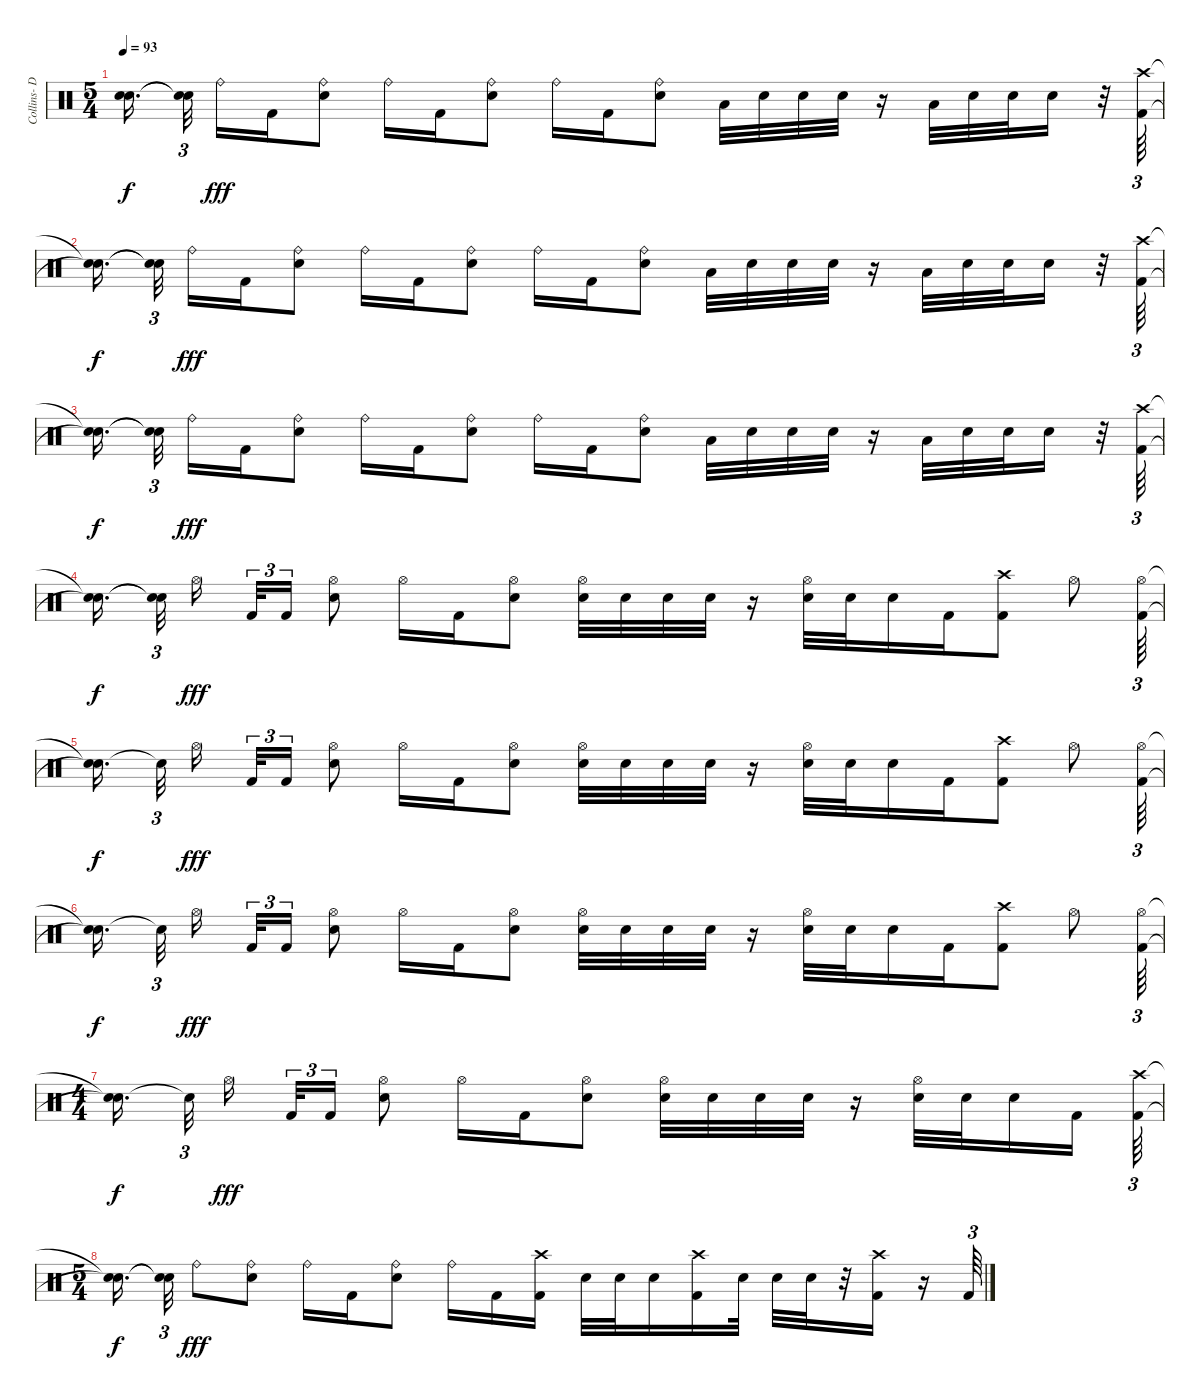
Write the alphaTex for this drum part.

\track ("Collins- Drums" "Collins- D") {instrument percussion}
\staff {score}
\articulation defaults
\ts (5 4)
\tempo 93
\clef neutral
\ks c
("Snare (hit)"{t} "Snare (hit)"{t}).16{d dy f beam splitsecondary} ("Snare (hit)"{t} "Snare (hit)"{t}).32{tu (3 2) beam splitsecondary} "Ride (bell)".16{dy fff} "Kick (hit) 2".16 ("Electric Snare (hit)" "Ride (bell)").8 "Ride (bell)".16 "Kick (hit) 2".16 ("Electric Snare (hit)" "Ride (bell)").8 "Ride (bell)".16 "Kick (hit) 2".16 ("Ride (bell)" "Electric Snare (hit)").8 "Low Tom (hit)".32 "Electric Snare (hit)".32 "Electric Snare (hit)".32 "Electric Snare (hit)".32 r.16 "Low Tom (hit)".32 "Electric Snare (hit)".32 "Electric Snare (hit)".32 "Electric Snare (hit)".16 r.32 ("Crash high (hit)" "Kick (hit) 2").64{tu (3 2)} |
("Snare (hit)"{t} "Snare (hit)"{t}).16{d dy f beam splitsecondary} ("Snare (hit)"{t} "Snare (hit)"{t}).32{tu (3 2) beam splitsecondary} "Ride (bell)".16{dy fff} "Kick (hit) 2".16 ("Electric Snare (hit)" "Ride (bell)").8 "Ride (bell)".16 "Kick (hit) 2".16 ("Electric Snare (hit)" "Ride (bell)").8 "Ride (bell)".16 "Kick (hit) 2".16 ("Ride (bell)" "Electric Snare (hit)").8 "Low Tom (hit)".32 "Electric Snare (hit)".32 "Electric Snare (hit)".32 "Electric Snare (hit)".32 r.16 "Low Tom (hit)".32 "Electric Snare (hit)".32 "Electric Snare (hit)".32 "Electric Snare (hit)".16 r.32 ("Crash high (hit)" "Kick (hit) 2").64{tu (3 2)} |
("Snare (hit)"{t} "Snare (hit)"{t}).16{d dy f beam splitsecondary} ("Snare (hit)"{t} "Snare (hit)"{t}).32{tu (3 2) beam splitsecondary} "Ride (bell)".16{dy fff} "Kick (hit) 2".16 ("Electric Snare (hit)" "Ride (bell)").8 "Ride (bell)".16 "Kick (hit) 2".16 ("Electric Snare (hit)" "Ride (bell)").8 "Ride (bell)".16 "Kick (hit) 2".16 ("Ride (bell)" "Electric Snare (hit)").8 "Low Tom (hit)".32 "Electric Snare (hit)".32 "Electric Snare (hit)".32 "Electric Snare (hit)".32 r.16 "Low Tom (hit)".32 "Electric Snare (hit)".32 "Electric Snare (hit)".32 "Electric Snare (hit)".16 r.32 ("Crash high (hit)" "Kick (hit) 2").64{tu (3 2)} |
("Snare (hit)"{t} "Snare (hit)"{t}).16{d dy f beam splitsecondary} ("Snare (hit)"{t} "Snare (hit)"{t}).32{tu (3 2) beam splitsecondary} "Hi-Hat (open)".16{dy fff beam splitsecondary} "Kick (hit) 2".32{tu (3 2)} "Kick (hit) 2".16{tu (3 2)} ("Electric Snare (hit)" "Hi-Hat (open)").8 "Hi-Hat (open)".16 "Kick (hit) 2".16 ("Electric Snare (hit)" "Hi-Hat (open)").8 ("Hi-Hat (open)" "Electric Snare (hit)").32 "Electric Snare (hit)".32 "Electric Snare (hit)".32 "Electric Snare (hit)".32 r.16 ("Hi-Hat (open)" "Electric Snare (hit)").32 "Electric Snare (hit)".32 "Electric Snare (hit)".16 "Kick (hit) 2".16 ("Kick (hit) 2" "Crash high (hit)").8 "Hi-Hat (open)".8 ("Hi-Hat (open)" "Kick (hit) 2").64{tu (3 2)} |
("Snare (hit)"{t} "Snare (hit)"{t}).16{d dy f beam splitsecondary} "Snare (hit)"{t}.32{tu (3 2) beam splitsecondary} "Hi-Hat (open)".16{dy fff beam splitsecondary} "Kick (hit) 2".32{tu (3 2)} "Kick (hit) 2".16{tu (3 2)} ("Electric Snare (hit)" "Hi-Hat (open)").8 "Hi-Hat (open)".16 "Kick (hit) 2".16 ("Electric Snare (hit)" "Hi-Hat (open)").8 ("Hi-Hat (open)" "Electric Snare (hit)").32 "Electric Snare (hit)".32 "Electric Snare (hit)".32 "Electric Snare (hit)".32 r.16 ("Hi-Hat (open)" "Electric Snare (hit)").32 "Electric Snare (hit)".32 "Electric Snare (hit)".16 "Kick (hit) 2".16 ("Kick (hit) 2" "Crash high (hit)").8 "Hi-Hat (open)".8 ("Hi-Hat (open)" "Kick (hit) 2").64{tu (3 2)} |
("Snare (hit)"{t} "Snare (hit)"{t}).16{d dy f beam splitsecondary} "Snare (hit)"{t}.32{tu (3 2) beam splitsecondary} "Hi-Hat (open)".16{dy fff beam splitsecondary} "Kick (hit) 2".32{tu (3 2)} "Kick (hit) 2".16{tu (3 2)} ("Electric Snare (hit)" "Hi-Hat (open)").8 "Hi-Hat (open)".16 "Kick (hit) 2".16 ("Electric Snare (hit)" "Hi-Hat (open)").8 ("Hi-Hat (open)" "Electric Snare (hit)").32 "Electric Snare (hit)".32 "Electric Snare (hit)".32 "Electric Snare (hit)".32 r.16 ("Hi-Hat (open)" "Electric Snare (hit)").32 "Electric Snare (hit)".32 "Electric Snare (hit)".16 "Kick (hit) 2".16 ("Kick (hit) 2" "Crash high (hit)").8 "Hi-Hat (open)".8 ("Hi-Hat (open)" "Kick (hit) 2").64{tu (3 2)} |
\ts (4 4)
("Snare (hit)"{t} "Snare (hit)"{t}).16{d dy f beam splitsecondary} "Snare (hit)"{t}.32{tu (3 2) beam splitsecondary} "Hi-Hat (open)".16{dy fff beam splitsecondary} "Kick (hit) 2".32{tu (3 2)} "Kick (hit) 2".16{tu (3 2)} ("Electric Snare (hit)" "Hi-Hat (open)").8 "Hi-Hat (open)".16 "Kick (hit) 2".16 ("Electric Snare (hit)" "Hi-Hat (open)").8 ("Hi-Hat (open)" "Electric Snare (hit)").32 "Electric Snare (hit)".32 "Electric Snare (hit)".32 "Electric Snare (hit)".32 r.16 ("Hi-Hat (open)" "Electric Snare (hit)").32 "Electric Snare (hit)".32 "Electric Snare (hit)".16 "Kick (hit) 2".16{beam splitsecondary} ("Kick (hit) 2" "Crash high (hit)").64{tu (3 2)} |
\ts (5 4)
("Snare (hit)"{t} "Snare (hit)"{t}).16{d dy f beam splitsecondary} ("Snare (hit)"{t} "Snare (hit)"{t}).32{tu (3 2)} "Ride (bell)".8{dy fff} ("Electric Snare (hit)" "Ride (bell)").8 "Ride (bell)".16 "Kick (hit) 2".16 ("Electric Snare (hit)" "Ride (bell)").8 "Ride (bell)".16 "Kick (hit) 2".16 ("Kick (hit) 2" "Crash high (hit)").16 "Electric Snare (hit)".32 "Electric Snare (hit)".32 "Electric Snare (hit)".16 ("Kick (hit) 2" "Crash high (hit)").16 "Electric Snare (hit)".32 "Electric Snare (hit)".32 "Electric Snare (hit)".32 r.32 ("Kick (hit) 2" "Crash high (hit)").16 r.16 "Kick (hit) 2".64{tu (3 2)}
